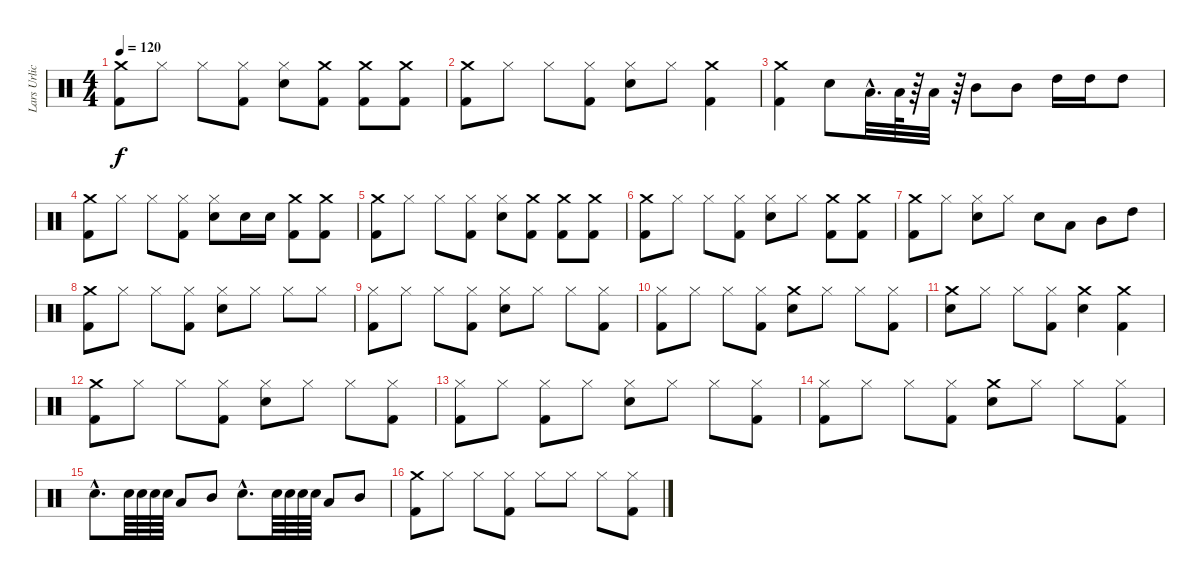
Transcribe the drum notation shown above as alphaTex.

\track ("Lars Urlich (drums)" "Lars Urlic") {instrument percussion}
\staff {score}
\articulation defaults
\ts (4 4)
\tempo 120
\clef neutral
\ks c
("Kick (hit) 2" "Crash medium (hit)").8{dy f} "Hi-Hat (closed)".8 "Hi-Hat (closed)".8 ("Kick (hit) 2" "Hi-Hat (closed)").8 ("Snare (hit) 2" "Hi-Hat (closed)").8 ("Kick (hit) 2" "Crash medium (hit)").8 ("Kick (hit) 2" "Crash medium (hit)").8 ("Kick (hit) 2" "Crash medium (hit)").8 |
("Kick (hit) 2" "Crash medium (hit)").8 "Hi-Hat (closed)".8 "Hi-Hat (closed)".8 ("Kick (hit) 2" "Hi-Hat (closed)").8 ("Snare (hit) 2" "Hi-Hat (closed)").8 "Hi-Hat (closed)".8 ("Crash medium (hit)" "Kick (hit) 2").4 |
("Kick (hit) 2" "Crash medium (hit)").4 "Snare (hit) 2".8 "Low Tom (hit)"{hac}.32{d} "Low Tom (hit)".64 r.64 "Low Tom (hit)".32 r.64 "Mid Tom (hit)".8 "Mid Tom (hit)".8 "High Tom (hit)".16 "High Tom (hit)".16 "High Tom (hit)".8 |
("Kick (hit) 2" "Crash medium (hit)").8 "Hi-Hat (closed)".8 "Hi-Hat (closed)".8 ("Kick (hit) 2" "Hi-Hat (closed)").8 ("Snare (hit) 2" "Hi-Hat (closed)").8 "Snare (hit) 2".16 "Snare (hit) 2".16 ("Kick (hit) 2" "Crash medium (hit)").8 ("Kick (hit) 2" "Crash medium (hit)").8 |
("Crash medium (hit)" "Kick (hit) 2").8 "Hi-Hat (closed)".8 "Hi-Hat (closed)".8 ("Kick (hit) 2" "Hi-Hat (closed)").8 ("Snare (hit) 2" "Hi-Hat (closed)").8 ("Kick (hit) 2" "Crash medium (hit)").8 ("Kick (hit) 2" "Crash medium (hit)").8 ("Kick (hit) 2" "Crash medium (hit)").8 |
("Crash medium (hit)" "Kick (hit) 2").8 "Hi-Hat (closed)".8 "Hi-Hat (closed)".8 ("Kick (hit) 2" "Hi-Hat (closed)").8 ("Snare (hit) 2" "Hi-Hat (closed)").8 "Hi-Hat (closed)".8 ("Kick (hit) 2" "Crash medium (hit)").8 ("Kick (hit) 2" "Crash medium (hit)").8 |
("Kick (hit) 2" "Crash medium (hit)").8 "Hi-Hat (closed)".8 ("Snare (hit) 2" "Hi-Hat (closed)").8 "Hi-Hat (closed)".8 "Snare (hit) 2".8 "Low Tom (hit)".8 "Mid Tom (hit)".8 "High Tom (hit)".8 |
("Crash medium (hit)" "Kick (hit) 2").8 "Hi-Hat (closed)".8 "Hi-Hat (closed)".8 ("Kick (hit) 2" "Hi-Hat (closed)").8 ("Snare (hit) 2" "Hi-Hat (closed)").8 "Hi-Hat (closed)".8 "Hi-Hat (closed)".8 "Hi-Hat (closed)".8 |
("Hi-Hat (closed)" "Kick (hit) 2").8 "Hi-Hat (closed)".8 "Hi-Hat (closed)".8 ("Kick (hit) 2" "Hi-Hat (closed)").8 ("Hi-Hat (closed)" "Snare (hit) 2").8 "Hi-Hat (closed)".8 "Hi-Hat (closed)".8 ("Kick (hit) 2" "Hi-Hat (closed)").8 |
("Hi-Hat (closed)" "Kick (hit) 2").8 "Hi-Hat (closed)".8 "Hi-Hat (closed)".8 ("Kick (hit) 2" "Hi-Hat (closed)").8 ("Crash medium (hit)" "Snare (hit) 2").8 "Hi-Hat (closed)".8 "Hi-Hat (closed)".8 ("Kick (hit) 2" "Hi-Hat (closed)").8 |
("Snare (hit) 2" "Crash medium (hit)").8 "Hi-Hat (closed)".8 "Hi-Hat (closed)".8 ("Kick (hit) 2" "Hi-Hat (closed)").8 ("Snare (hit) 2" "Crash medium (hit)").4 ("Crash medium (hit)" "Kick (hit) 2").4 |
("Crash medium (hit)" "Kick (hit) 2").8 "Hi-Hat (closed)".8 "Hi-Hat (closed)".8 ("Kick (hit) 2" "Hi-Hat (closed)").8 ("Snare (hit) 2" "Hi-Hat (closed)").8 "Hi-Hat (closed)".8 "Hi-Hat (closed)".8 ("Kick (hit) 2" "Hi-Hat (closed)").8 |
("Kick (hit) 2" "Hi-Hat (closed)").8 "Hi-Hat (closed)".8 ("Kick (hit) 2" "Hi-Hat (closed)").8 "Hi-Hat (closed)".8 ("Snare (hit) 2" "Hi-Hat (closed)").8 "Hi-Hat (closed)".8 "Hi-Hat (closed)".8 ("Kick (hit) 2" "Hi-Hat (closed)").8 |
("Kick (hit) 2" "Hi-Hat (closed)").8 "Hi-Hat (closed)".8 "Hi-Hat (closed)".8 ("Kick (hit) 2" "Hi-Hat (closed)").8 ("Snare (hit) 2" "Crash medium (hit)").8 "Hi-Hat (closed)".8 "Hi-Hat (closed)".8 ("Kick (hit) 2" "Hi-Hat (closed)").8 |
"Snare (hit) 2"{hac}.8{d} "Snare (hit) 2".64 "Snare (hit) 2".64 "Snare (hit) 2".64 "Snare (hit) 2".64 "Low Tom (hit)".8 "Mid Tom (hit)".8 "Snare (hit) 2"{hac}.8{d} "Snare (hit) 2".64 "Snare (hit) 2".64 "Snare (hit) 2".64 "Snare (hit) 2".64 "Low Tom (hit)".8 "Mid Tom (hit)".8 |
("Kick (hit) 2" "Crash medium (hit)").8 "Hi-Hat (closed)".8 "Hi-Hat (closed)".8 ("Kick (hit) 2" "Hi-Hat (closed)").8 "Hi-Hat (closed)".8 "Hi-Hat (closed)".8 "Hi-Hat (closed)".8 ("Kick (hit) 2" "Hi-Hat (closed)").8
